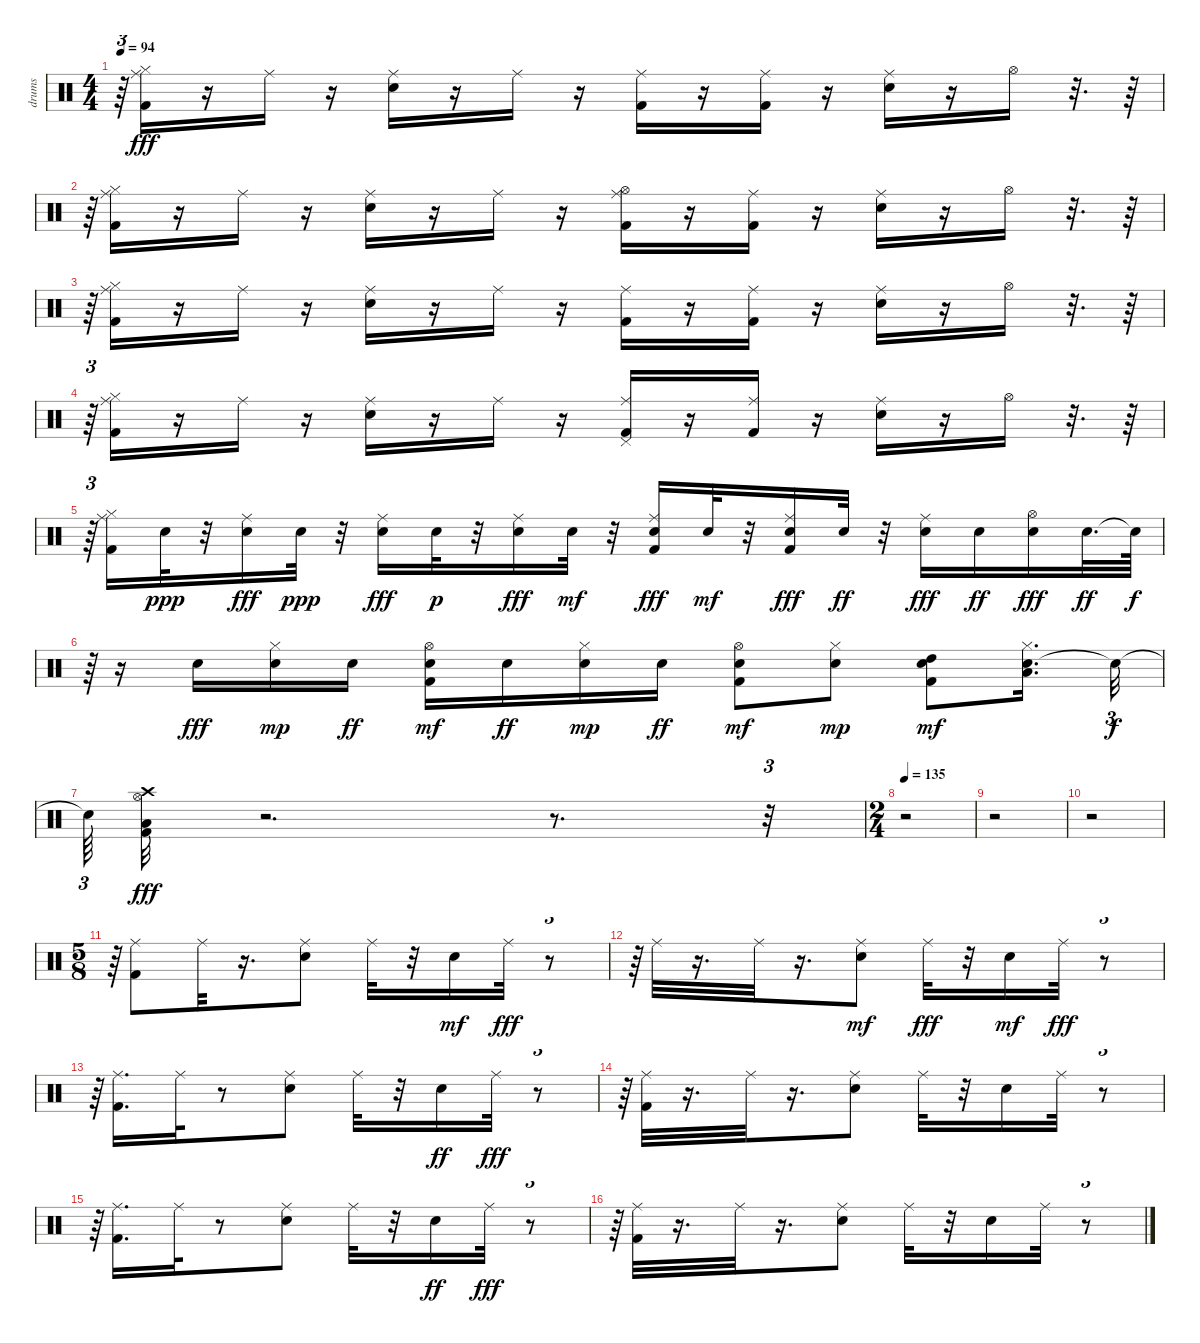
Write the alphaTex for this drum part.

\track ("drums               " "drums     ") {instrument percussion}
\staff {score}
\articulation defaults
\ts (4 4)
\tempo 94
\clef neutral
\ks c
r.64{tu (3 2) dy fff} ("Kick (hit) 2" "Ride (middle)" "Hi-Hat (closed)").16 r.16 "Ride (middle)".16 r.16 ("Snare (hit) 2" "Ride (middle)").16 r.16 "Ride (middle)".16 r.16 ("Kick (hit) 2" "Ride (middle)").16 r.16 ("Kick (hit) 2" "Ride (middle)").16 r.16 ("Snare (hit) 2" "Ride (middle)").16 r.16 "Hi-Hat (open)".16 r.32{d} r.64 |
r.64{tu (3 2)} ("Kick (hit) 2" "Ride (middle)" "Hi-Hat (closed)").16 r.16 "Ride (middle)".16 r.16 ("Snare (hit) 2" "Ride (middle)").16 r.16 "Ride (middle)".16 r.16 ("Kick (hit) 2" "Hi-Hat (open)" "Ride (middle)").16 r.16 ("Kick (hit) 2" "Ride (middle)").16 r.16 ("Snare (hit) 2" "Ride (middle)").16 r.16 "Hi-Hat (open)".16 r.32{d} r.64 |
r.64{tu (3 2)} ("Kick (hit) 2" "Ride (middle)" "Hi-Hat (closed)").16 r.16 "Ride (middle)".16 r.16 ("Snare (hit) 2" "Ride (middle)").16 r.16 "Ride (middle)".16 r.16 ("Kick (hit) 2" "Ride (middle)").16 r.16 ("Kick (hit) 2" "Ride (middle)").16 r.16 ("Snare (hit) 2" "Ride (middle)").16 r.16 "Hi-Hat (open)".16 r.32{d} r.64 |
r.64{tu (3 2)} ("Kick (hit) 2" "Ride (middle)" "Hi-Hat (closed)").16 r.16 "Ride (middle)".16 r.16 ("Snare (hit) 2" "Ride (middle)").16 r.16 "Ride (middle)".16 r.16 ("Kick (hit) 2" "Pedal Hi-Hat (hit)" "Ride (middle)").16 r.16 ("Kick (hit) 2" "Ride (middle)").16 r.16 ("Snare (hit) 2" "Ride (middle)").16 r.16 "Hi-Hat (open)".16 r.32{d} r.64 |
r.64{tu (3 2)} ("Kick (hit) 2" "Ride (middle)" "Hi-Hat (closed)").16 "Snare (hit) 2".32{dy ppp} r.32 ("Snare (hit) 2" "Ride (middle)").16{dy fff} "Snare (hit) 2".32{dy ppp} r.32 ("Snare (hit) 2" "Ride (middle)").16{dy fff} "Snare (hit) 2".32{dy p} r.32 ("Snare (hit) 2" "Ride (middle)").16{dy fff} "Snare (hit) 2".32{dy mf} r.32 ("Kick (hit) 2" "Snare (hit) 2" "Ride (middle)").16{dy fff} "Snare (hit) 2".32{dy mf} r.32 ("Kick (hit) 2" "Snare (hit) 2" "Ride (middle)").16{dy fff} "Snare (hit) 2".32{dy ff} r.32 ("Snare (hit) 2" "Ride (middle)").16{dy fff} "Snare (hit) 2".16{dy ff} ("Snare (hit) 2" "Hi-Hat (open)").16{dy fff} "Snare (hit) 2".32{d dy ff} "Snare (hit)"{t}.64{dy f} |
r.64{tu (3 2)} r.16 "Snare (hit) 2".16{dy fff} ("Snare (hit) 2" "Hi-Hat (closed)").16{dy mp} "Snare (hit) 2".16{dy ff} ("Kick (hit) 2" "Snare (hit) 2" "Hi-Hat (open)").16{dy mf} "Snare (hit) 2".16{dy ff} ("Snare (hit) 2" "Hi-Hat (closed)").16{dy mp} "Snare (hit) 2".16{dy ff} ("Kick (hit) 2" "Snare (hit) 2" "Hi-Hat (open)").8{dy mf} ("Snare (hit) 2" "Hi-Hat (closed)").8{dy mp} ("Kick (hit) 2" "Snare (hit) 2" "High Tom (hit)").8{dy mf} ("Snare (hit) 2" "Hi-Hat (closed)" "Low Tom (hit)").16{d} "Snare (hit)"{t}.32{tu (3 2) dy f} |
"Snare (hit)"{t}.64{tu (3 2)} ("Kick (hit) 2" "Low Floor Tom (hit)" "Hi-Hat (open)" "Crash high (hit)").32{dy fff} r.2{d} r.8{d} r.32{tu (3 2)} |
\ts (2 4)
\tempo 135
r.2 |
r.2 |
r.2 |
\ts (5 8)
r.64{tu (3 2)} ("Kick (hit) 2" "Ride (middle)").8 "Ride (middle)".32 r.16{d} ("Snare (hit) 2" "Ride (middle)").8 "Ride (middle)".32 r.32 "Snare (hit) 2".16{dy mf} "Ride (middle)".32{dy fff} r.8{tu (3 2)} |
r.64{tu (3 2)} "Ride (middle)".32 r.16{d} "Ride (middle)".32 r.16{d} ("Ride (middle)" "Snare (hit) 2").8{dy mf} "Ride (middle)".32{dy fff} r.32 "Snare (hit) 2".16{dy mf} "Ride (middle)".32{dy fff} r.8{tu (3 2)} |
r.64{tu (3 2)} ("Kick (hit) 2" "Ride (middle)").16{d} "Ride (middle)".32 r.8 ("Snare (hit) 2" "Ride (middle)").8 "Ride (middle)".32 r.32 "Snare (hit) 2".16{dy ff} "Ride (middle)".32{dy fff} r.8{tu (3 2)} |
r.64{tu (3 2)} ("Kick (hit) 2" "Ride (middle)").32 r.16{d} "Ride (middle)".32 r.16{d} ("Snare (hit) 2" "Ride (middle)").8 "Ride (middle)".32 r.32 "Snare (hit) 2".16 "Ride (middle)".32 r.8{tu (3 2)} |
r.64{tu (3 2)} ("Kick (hit) 2" "Ride (middle)").16{d} "Ride (middle)".32 r.8 ("Snare (hit) 2" "Ride (middle)").8 "Ride (middle)".32 r.32 "Snare (hit) 2".16{dy ff} "Ride (middle)".32{dy fff} r.8{tu (3 2)} |
r.64{tu (3 2)} ("Kick (hit) 2" "Ride (middle)").32 r.16{d} "Ride (middle)".32 r.16{d} ("Snare (hit) 2" "Ride (middle)").8 "Ride (middle)".32 r.32 "Snare (hit) 2".16 "Ride (middle)".32 r.8{tu (3 2)}
